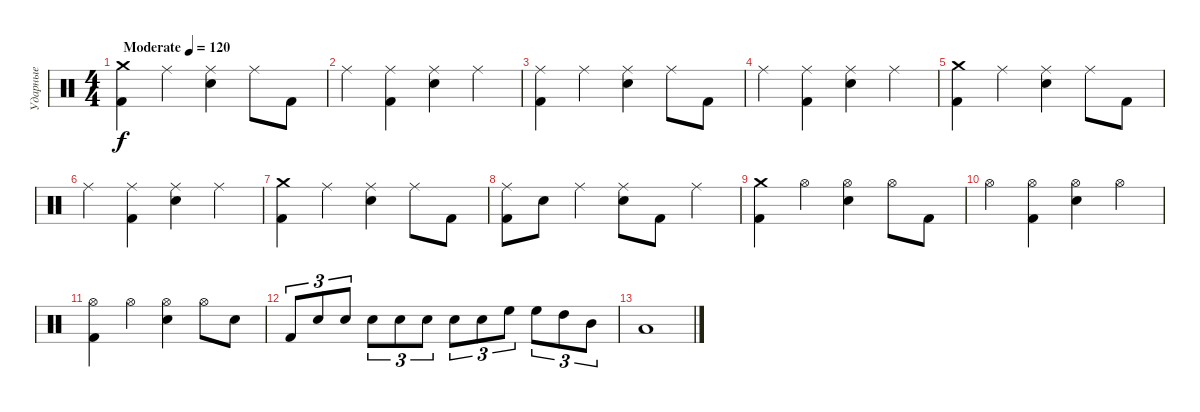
\track ("Ударные" "Ударные") {instrument percussion}
\staff {score}
\articulation defaults
\ts (4 4)
\tempo (120 "Moderate")
\clef neutral
\ks c
("Crash medium (hit)" "Kick (hit) 2").4{dy f} "Ride (middle)".4 ("Ride (middle)" "Electric Snare (hit)").4 "Ride (middle)".8 "Kick (hit) 2".8 |
"Ride (middle)".4 ("Ride (middle)" "Kick (hit) 2").4 ("Ride (middle)" "Electric Snare (hit)").4 "Ride (middle)".4 |
("Ride (middle)" "Kick (hit) 2").4 "Ride (middle)".4 ("Ride (middle)" "Electric Snare (hit)").4 "Ride (middle)".8 "Kick (hit) 2".8 |
"Ride (middle)".4 ("Ride (middle)" "Kick (hit) 2").4 ("Ride (middle)" "Electric Snare (hit)").4 "Ride (middle)".4 |
("Crash medium (hit)" "Kick (hit) 2").4 "Ride (middle)".4 ("Ride (middle)" "Electric Snare (hit)").4 "Ride (middle)".8 "Kick (hit) 2".8 |
"Ride (middle)".4 ("Ride (middle)" "Kick (hit) 2").4 ("Ride (middle)" "Electric Snare (hit)").4 "Ride (middle)".4 |
("Crash medium (hit)" "Kick (hit) 2").4 "Ride (middle)".4 ("Ride (middle)" "Electric Snare (hit)").4 "Ride (middle)".8 "Kick (hit) 2".8 |
("Ride (middle)" "Kick (hit) 2").8 "Electric Snare (hit)".8 "Ride (middle)".4 ("Ride (middle)" "Electric Snare (hit)").8 "Kick (hit) 2".8 "Ride (middle)".4 |
("Crash medium (hit)" "Kick (hit) 2").4 "Hi-Hat (open)".4 ("Hi-Hat (open)" "Electric Snare (hit)").4 "Hi-Hat (open)".8 "Kick (hit) 2".8 |
"Hi-Hat (open)".4 ("Hi-Hat (open)" "Kick (hit) 2").4 ("Hi-Hat (open)" "Electric Snare (hit)").4 "Hi-Hat (open)".4 |
("Hi-Hat (open)" "Kick (hit) 2").4 "Hi-Hat (open)".4 ("Hi-Hat (open)" "Electric Snare (hit)").4 "Hi-Hat (open)".8 "Electric Snare (hit)".8 |
"Kick (hit) 2".8{tu (3 2)} "Electric Snare (hit)".8{tu (3 2)} "Electric Snare (hit)".8{tu (3 2)} "Electric Snare (hit)".8{tu (3 2)} "Electric Snare (hit)".8{tu (3 2)} "Electric Snare (hit)".8{tu (3 2)} "Electric Snare (hit)".8{tu (3 2)} "Electric Snare (hit)".8{tu (3 2)} "High Floor Tom (hit)".8{tu (3 2)} "High Floor Tom (hit)".8{tu (3 2)} "High Tom (hit)".8{tu (3 2)} "Mid Tom (hit)".8{tu (3 2)} |
"Low Tom (hit)".1
